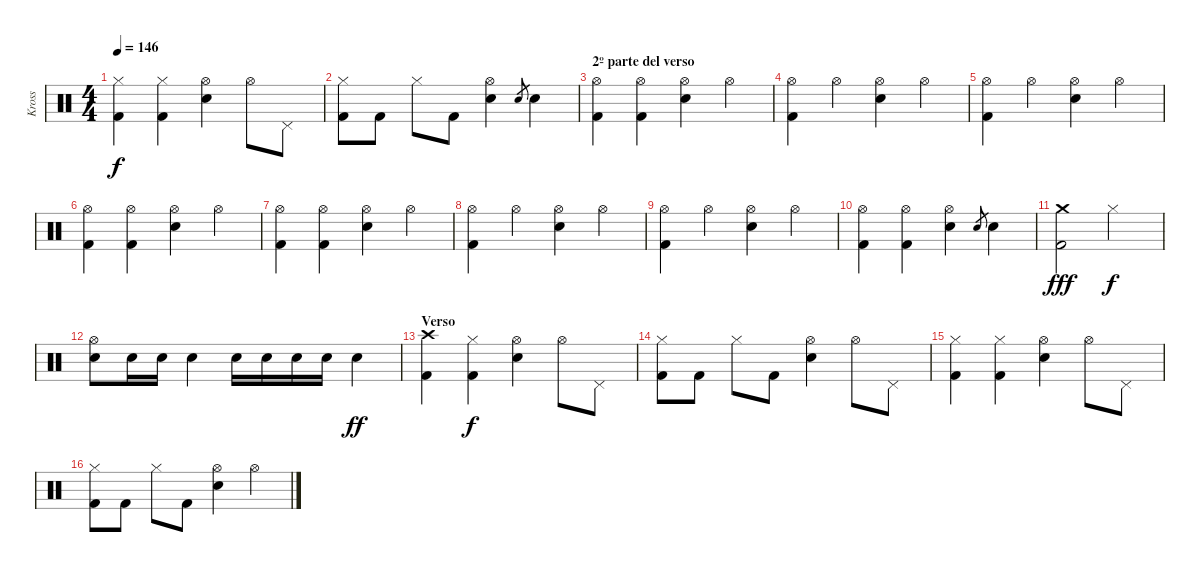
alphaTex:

\track ("Kross" "Kross") {instrument percussion}
\staff {score}
\articulation defaults
\ts (4 4)
\tempo 146
\clef neutral
\ks c
("Hi-Hat (closed)" "Kick (hit) 2").4{dy f} ("Hi-Hat (closed)" "Kick (hit) 2").4 ("Hi-Hat (open)" "Snare (hit) 2").4 "Hi-Hat (open)".8 "Pedal Hi-Hat (hit)".8 |
("Hi-Hat (closed)" "Kick (hit) 2").8 "Kick (hit) 2".8 "Hi-Hat (closed)".8 "Kick (hit) 2".8 ("Hi-Hat (open)" "Snare (hit) 2").4 "Snare (hit) 2".8{gr} "Snare (hit) 2".4 |
\section ("" "2º parte del verso")
("Hi-Hat (open)" "Kick (hit) 2").4 ("Hi-Hat (open)" "Kick (hit) 2").4 ("Hi-Hat (open)" "Snare (hit) 2").4 "Hi-Hat (open)".4 |
("Hi-Hat (open)" "Kick (hit) 2").4 "Hi-Hat (open)".4 ("Hi-Hat (open)" "Snare (hit) 2").4 "Hi-Hat (open)".4 |
("Hi-Hat (open)" "Kick (hit) 2").4 "Hi-Hat (open)".4 ("Hi-Hat (open)" "Snare (hit) 2").4 "Hi-Hat (open)".4 |
("Hi-Hat (open)" "Kick (hit) 2").4 ("Hi-Hat (open)" "Kick (hit) 2").4 ("Hi-Hat (open)" "Snare (hit) 2").4 "Hi-Hat (open)".4 |
("Hi-Hat (open)" "Kick (hit) 2").4 ("Hi-Hat (open)" "Kick (hit) 2").4 ("Hi-Hat (open)" "Snare (hit) 2").4 "Hi-Hat (open)".4 |
("Hi-Hat (open)" "Kick (hit) 2").4 "Hi-Hat (open)".4 ("Hi-Hat (open)" "Snare (hit) 2").4 "Hi-Hat (open)".4 |
("Hi-Hat (open)" "Kick (hit) 2").4 "Hi-Hat (open)".4 ("Hi-Hat (open)" "Snare (hit) 2").4 "Hi-Hat (open)".4 |
("Hi-Hat (open)" "Kick (hit) 2").4 ("Hi-Hat (open)" "Kick (hit) 2").4 ("Hi-Hat (open)" "Snare (hit) 2").4 "Snare (hit) 2".8{gr} "Snare (hit) 2".4 |
("Crash medium (hit)" "Kick (hit) 2").2{dy fff} "Hi-Hat (closed)".2{dy f} |
("Hi-Hat (open)" "Snare (hit) 2").8 "Snare (hit) 2".16 "Snare (hit) 2".16 "Snare (hit) 2".4 "Snare (hit) 2".16 "Snare (hit) 2".16 "Snare (hit) 2".16 "Snare (hit) 2".16 "Snare (hit) 2".4{dy ff} |
\section ("" "Verso")
("Crash high (hit)" "Kick (hit) 2").4 ("Hi-Hat (closed)" "Kick (hit) 2").4{dy f} ("Hi-Hat (open)" "Snare (hit) 2").4 "Hi-Hat (open)".8 "Pedal Hi-Hat (hit)".8 |
("Hi-Hat (closed)" "Kick (hit) 2").8 "Kick (hit) 2".8 "Hi-Hat (closed)".8 "Kick (hit) 2".8 ("Hi-Hat (open)" "Snare (hit) 2").4 "Hi-Hat (open)".8 "Pedal Hi-Hat (hit)".8 |
("Hi-Hat (closed)" "Kick (hit) 2").4 ("Hi-Hat (closed)" "Kick (hit) 2").4 ("Hi-Hat (open)" "Snare (hit) 2").4 "Hi-Hat (open)".8 "Pedal Hi-Hat (hit)".8 |
("Hi-Hat (closed)" "Kick (hit) 2").8 "Kick (hit) 2".8 "Hi-Hat (closed)".8 "Kick (hit) 2".8 ("Hi-Hat (open)" "Snare (hit) 2").4 "Hi-Hat (open)".4
